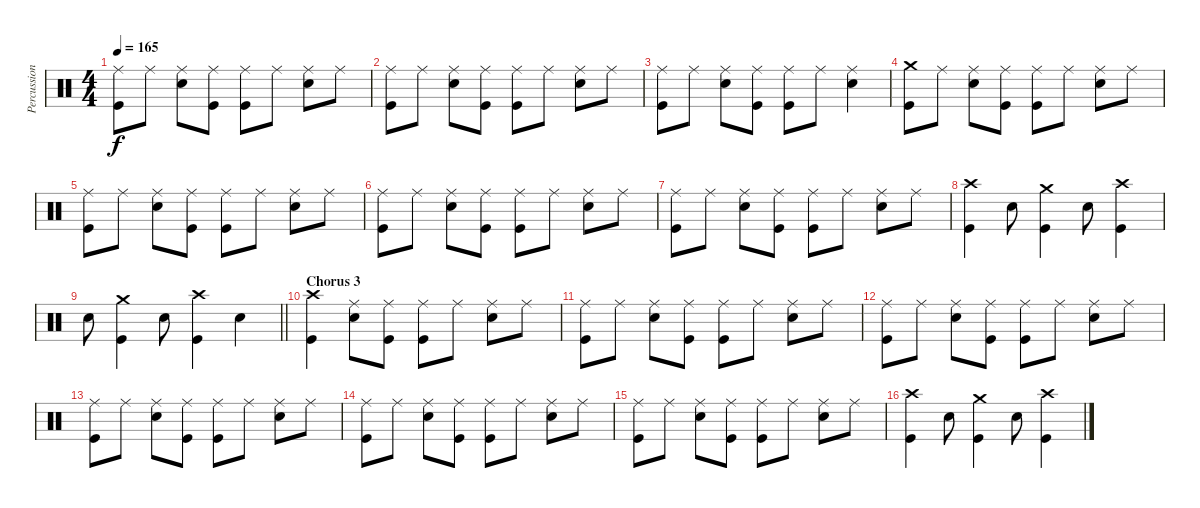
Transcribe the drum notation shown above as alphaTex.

\track ("Percussion" "Percussion") {instrument percussion}
\staff {score}
\articulation defaults
\ts (4 4)
\tempo 165
\clef neutral
\ks c
("Kick (hit)" "Ride (middle)").8{dy f} "Ride (middle)".8 ("Ride (middle)" "Snare (hit) 2").8 ("Kick (hit)" "Ride (middle)").8 ("Kick (hit)" "Ride (middle)").8 "Ride (middle)".8 ("Ride (middle)" "Snare (hit) 2").8 "Ride (middle)".8 |
("Kick (hit)" "Ride (middle)").8 "Ride (middle)".8 ("Ride (middle)" "Snare (hit) 2").8 ("Kick (hit)" "Ride (middle)").8 ("Kick (hit)" "Ride (middle)").8 "Ride (middle)".8 ("Ride (middle)" "Snare (hit) 2").8 "Ride (middle)".8 |
("Kick (hit)" "Ride (middle)").8 "Ride (middle)".8 ("Ride (middle)" "Snare (hit) 2").8 ("Kick (hit)" "Ride (middle)").8 ("Kick (hit)" "Ride (middle)").8 "Ride (middle)".8 ("Ride (middle)" "Snare (hit) 2").4 |
("Kick (hit)" "Crash medium (hit)").8 "Ride (middle)".8 ("Ride (middle)" "Snare (hit) 2").8 ("Kick (hit)" "Ride (middle)").8 ("Kick (hit)" "Ride (middle)").8 "Ride (middle)".8 ("Ride (middle)" "Snare (hit) 2").8 "Ride (middle)".8 |
("Kick (hit)" "Ride (middle)").8 "Ride (middle)".8 ("Ride (middle)" "Snare (hit) 2").8 ("Kick (hit)" "Ride (middle)").8 ("Kick (hit)" "Ride (middle)").8 "Ride (middle)".8 ("Ride (middle)" "Snare (hit) 2").8 "Ride (middle)".8 |
("Kick (hit)" "Ride (middle)").8 "Ride (middle)".8 ("Ride (middle)" "Snare (hit) 2").8 ("Kick (hit)" "Ride (middle)").8 ("Kick (hit)" "Ride (middle)").8 "Ride (middle)".8 ("Ride (middle)" "Snare (hit) 2").8 "Ride (middle)".8 |
("Kick (hit)" "Ride (middle)").8 "Ride (middle)".8 ("Ride (middle)" "Snare (hit) 2").8 ("Kick (hit)" "Ride (middle)").8 ("Kick (hit)" "Ride (middle)").8 "Ride (middle)".8 ("Ride (middle)" "Snare (hit) 2").8 "Ride (middle)".8 |
("Kick (hit)" "Crash high (hit)").4 "Snare (hit) 2".8 ("Kick (hit)" "Crash medium (hit)").4 "Snare (hit) 2".8 ("Kick (hit)" "Crash high (hit)").4 |
\barLineRight lightlight "Snare (hit) 2".8
("Kick (hit)" "Crash medium (hit)").4 "Snare (hit) 2".8 ("Kick (hit)" "Crash high (hit)").4 "Snare (hit) 2".4 |
\section ("" "Chorus 3")
("Kick (hit)" "Crash high (hit)").4 ("Ride (middle)" "Snare (hit) 2").8 ("Kick (hit)" "Ride (middle)").8 ("Kick (hit)" "Ride (middle)").8 "Ride (middle)".8 ("Ride (middle)" "Snare (hit) 2").8 "Ride (middle)".8 |
("Kick (hit)" "Ride (middle)").8 "Ride (middle)".8 ("Ride (middle)" "Snare (hit) 2").8 ("Kick (hit)" "Ride (middle)").8 ("Kick (hit)" "Ride (middle)").8 "Ride (middle)".8 ("Ride (middle)" "Snare (hit) 2").8 "Ride (middle)".8 |
("Kick (hit)" "Ride (middle)").8 "Ride (middle)".8 ("Ride (middle)" "Snare (hit) 2").8 ("Kick (hit)" "Ride (middle)").8 ("Kick (hit)" "Ride (middle)").8 "Ride (middle)".8 ("Ride (middle)" "Snare (hit) 2").8 "Ride (middle)".8 |
("Kick (hit)" "Ride (middle)").8 "Ride (middle)".8 ("Ride (middle)" "Snare (hit) 2").8 ("Kick (hit)" "Ride (middle)").8 ("Kick (hit)" "Ride (middle)").8 "Ride (middle)".8 ("Ride (middle)" "Snare (hit) 2").8 "Ride (middle)".8 |
("Kick (hit)" "Ride (middle)").8 "Ride (middle)".8 ("Ride (middle)" "Snare (hit) 2").8 ("Kick (hit)" "Ride (middle)").8 ("Kick (hit)" "Ride (middle)").8 "Ride (middle)".8 ("Ride (middle)" "Snare (hit) 2").8 "Ride (middle)".8 |
("Kick (hit)" "Ride (middle)").8 "Ride (middle)".8 ("Ride (middle)" "Snare (hit) 2").8 ("Kick (hit)" "Ride (middle)").8 ("Kick (hit)" "Ride (middle)").8 "Ride (middle)".8 ("Ride (middle)" "Snare (hit) 2").8 "Ride (middle)".8 |
("Kick (hit)" "Crash high (hit)").4 "Snare (hit) 2".8 ("Kick (hit)" "Crash medium (hit)").4 "Snare (hit) 2".8 ("Kick (hit)" "Crash high (hit)").4
